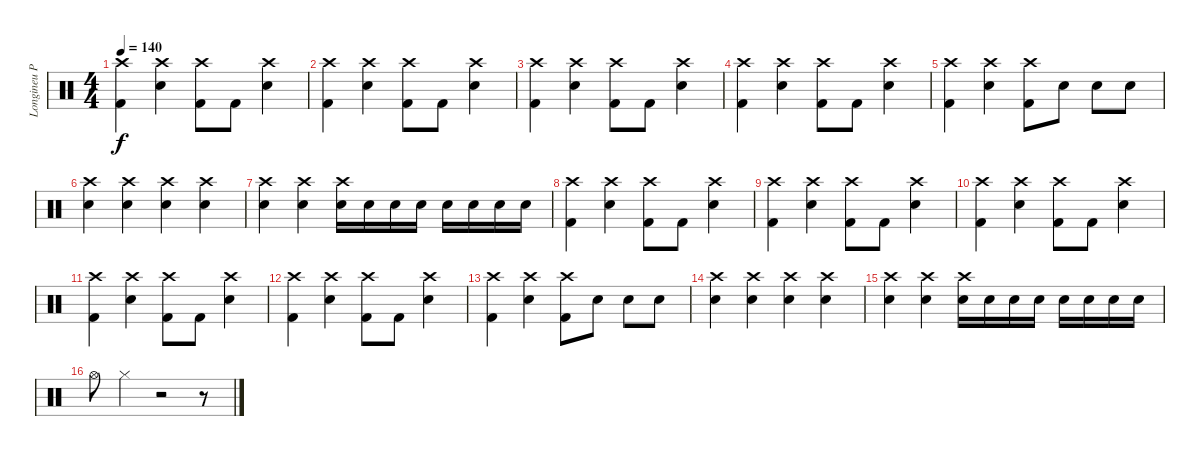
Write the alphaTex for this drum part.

\track ("Longineu Parsons III Drums" "Longineu P") {instrument percussion}
\staff {score}
\articulation defaults
\ts (4 4)
\tempo 140
\clef neutral
\ks c
("Crash high (hit)" "Kick (hit) 2").4{dy f} ("Crash high (hit)" "Snare (hit) 2").4 ("Crash high (hit)" "Kick (hit) 2").8 "Kick (hit) 2".8 ("Crash high (hit)" "Snare (hit) 2").4 |
("Crash high (hit)" "Kick (hit) 2").4 ("Crash high (hit)" "Snare (hit) 2").4 ("Crash high (hit)" "Kick (hit) 2").8 "Kick (hit) 2".8 ("Crash high (hit)" "Snare (hit) 2").4 |
("Crash high (hit)" "Kick (hit) 2").4 ("Crash high (hit)" "Snare (hit) 2").4 ("Crash high (hit)" "Kick (hit) 2").8 "Kick (hit) 2".8 ("Crash high (hit)" "Snare (hit) 2").4 |
("Crash high (hit)" "Kick (hit) 2").4 ("Crash high (hit)" "Snare (hit) 2").4 ("Crash high (hit)" "Kick (hit) 2").8 "Kick (hit) 2".8 ("Crash high (hit)" "Snare (hit) 2").4 |
("Crash high (hit)" "Kick (hit) 2").4 ("Crash high (hit)" "Snare (hit) 2").4 ("Crash high (hit)" "Kick (hit) 2").8 "Snare (hit) 2".8 "Snare (hit) 2".8 "Snare (hit) 2".8 |
("Crash high (hit)" "Snare (hit) 2").4 ("Crash high (hit)" "Snare (hit) 2").4 ("Crash high (hit)" "Snare (hit) 2").4 ("Crash high (hit)" "Snare (hit) 2").4 |
("Crash high (hit)" "Snare (hit) 2").4 ("Crash high (hit)" "Snare (hit) 2").4 ("Crash high (hit)" "Snare (hit) 2").16 "Snare (hit) 2".16 "Snare (hit) 2".16 "Snare (hit) 2".16 "Snare (hit) 2".16 "Snare (hit) 2".16 "Snare (hit) 2".16 "Snare (hit) 2".16 |
("Crash high (hit)" "Kick (hit) 2").4 ("Crash high (hit)" "Snare (hit) 2").4 ("Crash high (hit)" "Kick (hit) 2").8 "Kick (hit) 2".8 ("Crash high (hit)" "Snare (hit) 2").4 |
("Crash high (hit)" "Kick (hit) 2").4 ("Crash high (hit)" "Snare (hit) 2").4 ("Crash high (hit)" "Kick (hit) 2").8 "Kick (hit) 2".8 ("Crash high (hit)" "Snare (hit) 2").4 |
("Crash high (hit)" "Kick (hit) 2").4 ("Crash high (hit)" "Snare (hit) 2").4 ("Crash high (hit)" "Kick (hit) 2").8 "Kick (hit) 2".8 ("Crash high (hit)" "Snare (hit) 2").4 |
("Crash high (hit)" "Kick (hit) 2").4 ("Crash high (hit)" "Snare (hit) 2").4 ("Crash high (hit)" "Kick (hit) 2").8 "Kick (hit) 2".8 ("Crash high (hit)" "Snare (hit) 2").4 |
("Crash high (hit)" "Kick (hit) 2").4 ("Crash high (hit)" "Snare (hit) 2").4 ("Crash high (hit)" "Kick (hit) 2").8 "Kick (hit) 2".8 ("Crash high (hit)" "Snare (hit) 2").4 |
("Crash high (hit)" "Kick (hit) 2").4 ("Crash high (hit)" "Snare (hit) 2").4 ("Crash high (hit)" "Kick (hit) 2").8 "Snare (hit) 2".8 "Snare (hit) 2".8 "Snare (hit) 2".8 |
("Crash high (hit)" "Snare (hit) 2").4 ("Crash high (hit)" "Snare (hit) 2").4 ("Crash high (hit)" "Snare (hit) 2").4 ("Crash high (hit)" "Snare (hit) 2").4 |
("Crash high (hit)" "Snare (hit) 2").4 ("Crash high (hit)" "Snare (hit) 2").4 ("Crash high (hit)" "Snare (hit) 2").16 "Snare (hit) 2".16 "Snare (hit) 2".16 "Snare (hit) 2".16 "Snare (hit) 2".16 "Snare (hit) 2".16 "Snare (hit) 2".16 "Snare (hit) 2".16 |
"Hi-Hat (open)".8 "Hi-Hat (closed)".4 r.2 r.8
